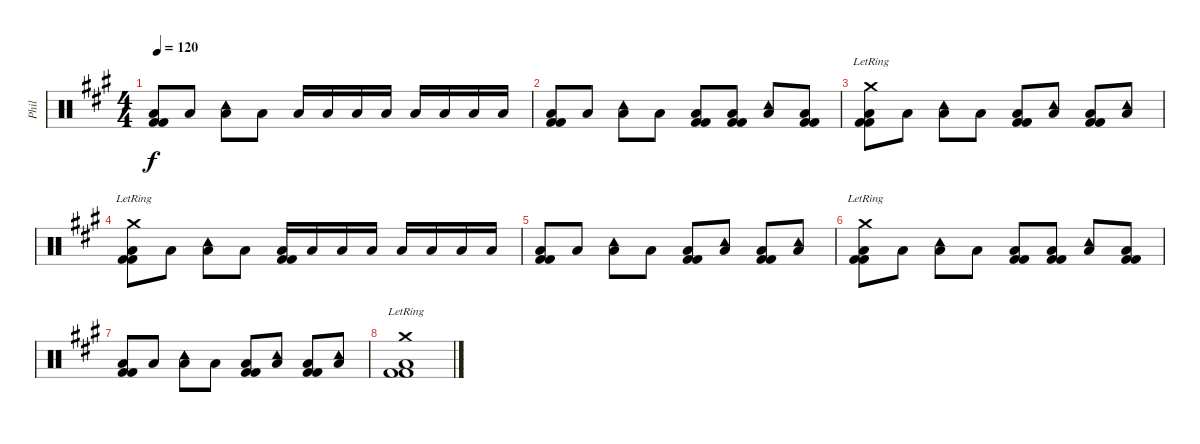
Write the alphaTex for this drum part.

\track ("Phil" "Phil") {instrument percussion}
\staff {score}
\articulation defaults
\ts (4 4)
\tempo 120
\clef neutral
\ks a
("Kick (hit) 2" "Low Floor Tom (hit)" "Kick (hit) 2").8{dy f} "Low Floor Tom (hit)".8 ("Low Floor Tom (hit)" "Tambourine (hit)").8 "Low Floor Tom (hit)".8 "Low Floor Tom (hit)".16 "Low Tom (hit)".16 "Low Tom (hit)".16 "Low Floor Tom (hit)".16 "Low Floor Tom (hit)".16 "Low Tom (hit)".16 "Low Tom (hit)".16 "Low Floor Tom (hit)".16 |
("Kick (hit) 2" "Low Floor Tom (hit)" "Kick (hit) 2").8 "Low Floor Tom (hit)".8 ("Low Floor Tom (hit)" "Tambourine (hit)").8 "Low Floor Tom (hit)".8 ("Kick (hit) 2" "Low Floor Tom (hit)" "Kick (hit) 2").8 ("Kick (hit) 2" "Low Floor Tom (hit)" "Kick (hit) 2").8 ("Low Floor Tom (hit)" "Tambourine (hit)").8 ("Kick (hit) 2" "Low Floor Tom (hit)" "Kick (hit) 2").8 |
("Kick (hit) 2" "Low Floor Tom (hit)" "Kick (hit) 2" "Crash medium (hit)"{lr}).8 "Low Floor Tom (hit)".8 ("Low Floor Tom (hit)" "Tambourine (hit)").8 "Low Floor Tom (hit)".8 ("Kick (hit) 2" "Low Floor Tom (hit)" "Kick (hit) 2").8 ("Low Floor Tom (hit)" "Tambourine (hit)").8 ("Kick (hit) 2" "Low Floor Tom (hit)" "Kick (hit) 2").8 ("Low Floor Tom (hit)" "Tambourine (hit)").8 |
("Kick (hit) 2" "Low Floor Tom (hit)" "Kick (hit) 2" "Crash medium (hit)"{lr}).8 "Low Floor Tom (hit)".8 ("Low Floor Tom (hit)" "Tambourine (hit)").8 "Low Floor Tom (hit)".8 ("Kick (hit) 2" "Low Floor Tom (hit)" "Kick (hit) 2").16 "Low Tom (hit)".16 "Low Tom (hit)".16 "Low Floor Tom (hit)".16 "Low Floor Tom (hit)".16 "Low Tom (hit)".16 "Low Tom (hit)".16 "Low Floor Tom (hit)".16 |
("Kick (hit) 2" "Low Floor Tom (hit)" "Kick (hit) 2").8 "Low Floor Tom (hit)".8 ("Low Floor Tom (hit)" "Tambourine (hit)").8 "Low Floor Tom (hit)".8 ("Kick (hit) 2" "Low Floor Tom (hit)" "Kick (hit) 2").8 ("Low Floor Tom (hit)" "Tambourine (hit)").8 ("Kick (hit) 2" "Low Floor Tom (hit)" "Kick (hit) 2").8 ("Low Floor Tom (hit)" "Tambourine (hit)").8 |
("Kick (hit) 2" "Low Floor Tom (hit)" "Kick (hit) 2" "Crash medium (hit)"{lr}).8 "Low Floor Tom (hit)".8 ("Low Floor Tom (hit)" "Tambourine (hit)").8 "Low Floor Tom (hit)".8 ("Kick (hit) 2" "Low Floor Tom (hit)" "Kick (hit) 2").8 ("Kick (hit) 2" "Low Floor Tom (hit)" "Kick (hit) 2").8 ("Low Floor Tom (hit)" "Tambourine (hit)").8 ("Kick (hit) 2" "Low Floor Tom (hit)" "Kick (hit) 2").8 |
("Kick (hit) 2" "Low Floor Tom (hit)" "Kick (hit) 2").8 "Low Floor Tom (hit)".8 ("Low Floor Tom (hit)" "Tambourine (hit)").8 "Low Floor Tom (hit)".8 ("Kick (hit) 2" "Low Floor Tom (hit)" "Kick (hit) 2").8 ("Low Floor Tom (hit)" "Tambourine (hit)").8 ("Kick (hit) 2" "Low Floor Tom (hit)" "Kick (hit) 2").8 ("Low Floor Tom (hit)" "Tambourine (hit)").8 |
("Kick (hit) 2" "Low Floor Tom (hit)" "Kick (hit) 2" "Crash medium (hit)"{lr}).1
